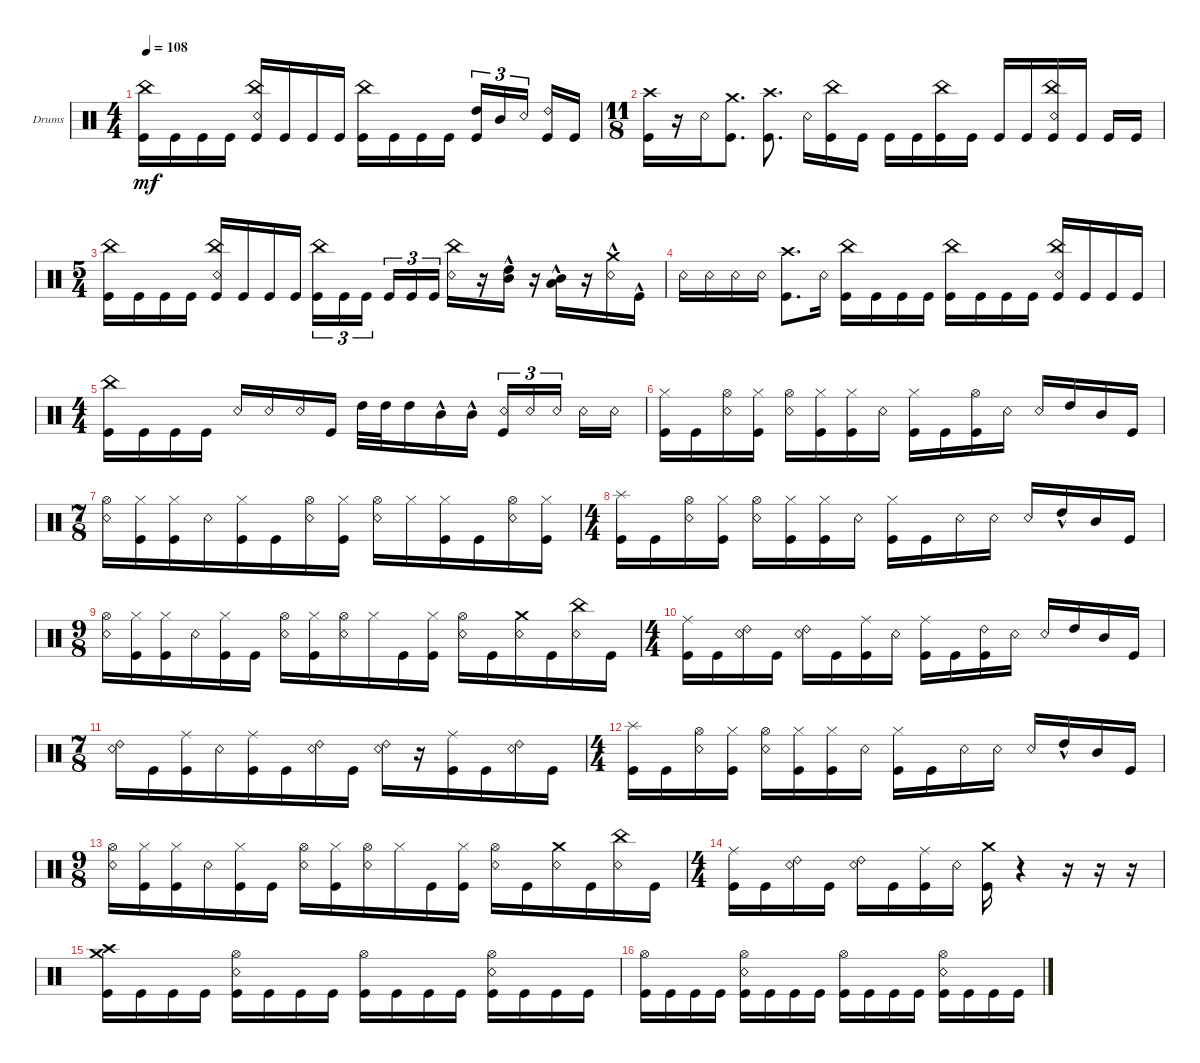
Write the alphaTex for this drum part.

\defaultSystemsLayout 4
\bracketExtendMode groupsimilarinstruments
\firstSystemTrackNameOrientation horizontal
\otherSystemsTrackNameOrientation horizontal
\track ("Drumkit" "Drums") {instrument percussion}
\staff {score}
\articulation defaults
\ts (4 4)
\tempo 108
\clef neutral
\ks c
("Kick (hit)" "China (hit)").16{dy mf} "Kick (hit)".16 "Kick (hit)".16 "Kick (hit)".16 ("Kick (hit)" "China (hit)" "Snare (rim shot)").16 "Kick (hit)".16 "Kick (hit)".16 "Kick (hit)".16 ("Kick (hit)" "China (hit)").16 "Kick (hit)".16 "Kick (hit)".16 "Kick (hit)".16 ("High Tom (hit)" "Kick (hit)").16{tu (3 2)} "Mid Tom (hit)".16{tu (3 2)} "Snare (rim shot)".16{tu (3 2)} ("Ride (bell) 2" "Kick (hit)").16 "Kick (hit)".16 |
\ts (11 8)
("Kick (hit)" "Crash high (hit)").16 r.16 "Snare (rim shot)".16 ("Kick (hit)" "Crash medium (hit)").8{d} ("Kick (hit)" "Crash high (hit)").8{d} "Snare (rim shot)".16 ("Kick (hit)" "China (hit)").16 "Kick (hit)".16 "Kick (hit)".16 "Kick (hit)".16 ("Kick (hit)" "China (hit)").16 "Kick (hit)".16 "Kick (hit)".16 "Kick (hit)".16 ("Kick (hit)" "China (hit)" "Snare (rim shot)").16 "Kick (hit)".16 "Kick (hit)".16 "Kick (hit)".16 |
\ts (5 4)
("Kick (hit)" "China (hit)").16 "Kick (hit)".16 "Kick (hit)".16 "Kick (hit)".16 ("Kick (hit)" "China (hit)" "Snare (rim shot)").16 "Kick (hit)".16 "Kick (hit)".16 "Kick (hit)".16 ("Kick (hit)" "China (hit)").16{tu (3 2)} "Kick (hit)".16{tu (3 2)} "Kick (hit)".16{tu (3 2)} "Kick (hit)".16{tu (3 2)} "Kick (hit)".16{tu (3 2)} "Kick (hit)".16{tu (3 2)} ("China (hit)" "Snare (rim shot)").16 r.16 ("High Tom (hit)"{hac} "Mid Tom (hit)"{hac}).16 r.16 ("Low Tom (hit)"{hac} "Mid Tom (hit)"{hac}).16 r.16 ("Snare (rim shot)"{hac} "Crash medium (hit)"{hac}).16 "Kick (hit)"{hac}.16 |
"Snare (rim shot)".16 "Snare (rim shot)".16 "Snare (rim shot)".16 "Snare (rim shot)".16 ("Kick (hit)" "Crash high (hit)").8{d} "Snare (rim shot)".16 ("Kick (hit)" "China (hit)").16 "Kick (hit)".16 "Kick (hit)".16 "Kick (hit)".16 ("Kick (hit)" "China (hit)").16 "Kick (hit)".16 "Kick (hit)".16 "Kick (hit)".16 ("Kick (hit)" "China (hit)" "Snare (rim shot)").16 "Kick (hit)".16 "Kick (hit)".16 "Kick (hit)".16 |
\ts (4 4)
("Kick (hit)" "China (hit)").16 "Kick (hit)".16 "Kick (hit)".16 "Kick (hit)".16 "Snare (rim shot)".16 "Snare (rim shot)".16 "Snare (rim shot)".16 "Kick (hit)".16 "High Tom (hit)".32 "High Tom (hit)".32 "High Tom (hit)".16 "Mid Tom (hit)"{hac}.16 "Mid Tom (hit)"{hac}.16 ("Snare (rim shot)" "Kick (hit)").16{tu (3 2)} "Snare (rim shot)".16{tu (3 2)} "Snare (rim shot)".16{tu (3 2)} "Snare (rim shot)".16 "Snare (rim shot)".16 |
("Kick (hit)" "Hi-Hat (closed)").16 "Kick (hit)".16 ("Hi-Hat (open)" "Snare (rim shot)").16 ("Hi-Hat (closed)" "Kick (hit)").16 ("Snare (rim shot)" "Hi-Hat (open)").16 ("Kick (hit)" "Hi-Hat (closed)").16 ("Kick (hit)" "Hi-Hat (closed)").16 "Snare (rim shot)".16 ("Kick (hit)" "Hi-Hat (closed)").16 "Kick (hit)".16 ("Kick (hit)" "Hi-Hat (open)").16 "Snare (rim shot)".16 "Snare (rim shot)".16 "High Tom (hit)".16 "Mid Tom (hit)".16 "Kick (hit)".16 |
\ts (7 8)
("Snare (rim shot)" "Hi-Hat (open)").16 ("Kick (hit)" "Hi-Hat (closed)").16 ("Kick (hit)" "Hi-Hat (closed)").16 "Snare (rim shot)".16 ("Kick (hit)" "Hi-Hat (closed)").16 "Kick (hit)".16 ("Snare (rim shot)" "Hi-Hat (open)").16 ("Kick (hit)" "Hi-Hat (closed)").16 ("Snare (rim shot)" "Hi-Hat (open)").16 "Hi-Hat (closed)".16 ("Kick (hit)" "Hi-Hat (closed)").16 "Kick (hit)".16 ("Snare (rim shot)" "Hi-Hat (open)").16 ("Kick (hit)" "Hi-Hat (closed)").16 |
\ts (4 4)
("Kick (hit)" "Splash (hit)").16 "Kick (hit)".16 ("Hi-Hat (open)" "Snare (rim shot)").16 ("Hi-Hat (closed)" "Kick (hit)").16 ("Snare (rim shot)" "Hi-Hat (open)").16 ("Kick (hit)" "Hi-Hat (closed)").16 ("Kick (hit)" "Hi-Hat (closed)").16 "Snare (rim shot)".16 ("Kick (hit)" "Hi-Hat (closed)").16 "Kick (hit)".16 "Snare (rim shot)".16 "Snare (rim shot)".16 "Snare (rim shot)".16 "High Tom (hit)"{hac}.16 "Mid Tom (hit)".16 "Kick (hit)".16 |
\ts (9 8)
("Snare (rim shot)" "Hi-Hat (open)").16 ("Kick (hit)" "Hi-Hat (closed)").16 ("Kick (hit)" "Hi-Hat (closed)").16 "Snare (rim shot)".16 ("Kick (hit)" "Hi-Hat (closed)").16 "Kick (hit)".16 ("Snare (rim shot)" "Hi-Hat (open)").16 ("Kick (hit)" "Hi-Hat (closed)").16 ("Snare (rim shot)" "Hi-Hat (open)").16 "Hi-Hat (closed)".16 "Kick (hit)".16 ("Kick (hit)" "Hi-Hat (closed)").16 ("Snare (rim shot)" "Hi-Hat (open)").16 "Kick (hit)".16 ("Snare (rim shot)" "Crash medium (hit)").16 "Kick (hit)".16 ("Snare (rim shot)" "China (hit)").16 "Kick (hit)".16 |
\ts (4 4)
("Kick (hit)" "Ride (middle)").16 "Kick (hit)".16 ("Snare (rim shot)" "Ride (bell) 2").16 "Kick (hit)".16 ("Snare (rim shot)" "Ride (bell) 2").16 "Kick (hit)".16 ("Kick (hit)" "Ride (middle)").16 "Snare (rim shot)".16 ("Kick (hit)" "Ride (middle)").16 "Kick (hit)".16 ("Kick (hit)" "Ride (bell) 2").16 "Snare (rim shot)".16 "Snare (rim shot)".16 "High Tom (hit)".16 "Mid Tom (hit)".16 "Kick (hit)".16 |
\ts (7 8)
("Snare (rim shot)" "Ride (bell) 2").16 "Kick (hit)".16 ("Kick (hit)" "Ride (middle)").16 "Snare (rim shot)".16 ("Kick (hit)" "Ride (middle)").16 "Kick (hit)".16 ("Snare (rim shot)" "Ride (bell) 2").16 "Kick (hit)".16 ("Snare (rim shot)" "Ride (bell) 2").16 r.16 ("Kick (hit)" "Ride (middle)").16 "Kick (hit)".16 ("Snare (rim shot)" "Ride (bell) 2").16 "Kick (hit)".16 |
\ts (4 4)
("Kick (hit)" "Splash (hit)").16 "Kick (hit)".16 ("Hi-Hat (open)" "Snare (rim shot)").16 ("Hi-Hat (closed)" "Kick (hit)").16 ("Snare (rim shot)" "Hi-Hat (open)").16 ("Kick (hit)" "Hi-Hat (closed)").16 ("Kick (hit)" "Hi-Hat (closed)").16 "Snare (rim shot)".16 ("Kick (hit)" "Hi-Hat (closed)").16 "Kick (hit)".16 "Snare (rim shot)".16 "Snare (rim shot)".16 "Snare (rim shot)".16 "High Tom (hit)"{hac}.16 "Mid Tom (hit)".16 "Kick (hit)".16 |
\ts (9 8)
("Snare (rim shot)" "Hi-Hat (open)").16 ("Kick (hit)" "Hi-Hat (closed)").16 ("Kick (hit)" "Hi-Hat (closed)").16 "Snare (rim shot)".16 ("Kick (hit)" "Hi-Hat (closed)").16 "Kick (hit)".16 ("Snare (rim shot)" "Hi-Hat (open)").16 ("Kick (hit)" "Hi-Hat (closed)").16 ("Snare (rim shot)" "Hi-Hat (open)").16 "Hi-Hat (closed)".16 "Kick (hit)".16 ("Kick (hit)" "Hi-Hat (closed)").16 ("Snare (rim shot)" "Hi-Hat (open)").16 "Kick (hit)".16 ("Snare (rim shot)" "Crash medium (hit)").16 "Kick (hit)".16 ("Snare (rim shot)" "China (hit)").16 "Kick (hit)".16 |
\ts (4 4)
("Kick (hit)" "Ride (middle)").16 "Kick (hit)".16 ("Snare (rim shot)" "Ride (bell) 2").16 "Kick (hit)".16 ("Snare (rim shot)" "Ride (bell) 2").16 "Kick (hit)".16 ("Kick (hit)" "Ride (middle)").16 "Snare (rim shot)".16 ("Kick (hit)" "Crash medium (hit)").16 r.4 r.16 r.16 r.16 |
("Kick (hit)" "Crash high (hit)" "Crash medium (hit)").16 "Kick (hit)".16 "Kick (hit)".16 "Kick (hit)".16 ("Kick (hit)" "Hi-Hat (open)" "Snare (rim shot)").16 "Kick (hit)".16 "Kick (hit)".16 "Kick (hit)".16 ("Kick (hit)" "Hi-Hat (open)").16 "Kick (hit)".16 "Kick (hit)".16 "Kick (hit)".16 ("Kick (hit)" "Snare (rim shot)" "Hi-Hat (open)").16 "Kick (hit)".16 "Kick (hit)".16 "Kick (hit)".16 |
("Kick (hit)" "Hi-Hat (open)").16 "Kick (hit)".16 "Kick (hit)".16 "Kick (hit)".16 ("Kick (hit)" "Hi-Hat (open)" "Snare (rim shot)").16 "Kick (hit)".16 "Kick (hit)".16 "Kick (hit)".16 ("Kick (hit)" "Hi-Hat (open)").16 "Kick (hit)".16 "Kick (hit)".16 "Kick (hit)".16 ("Kick (hit)" "Snare (rim shot)" "Hi-Hat (open)").16 "Kick (hit)".16 "Kick (hit)".16 "Kick (hit)".16
